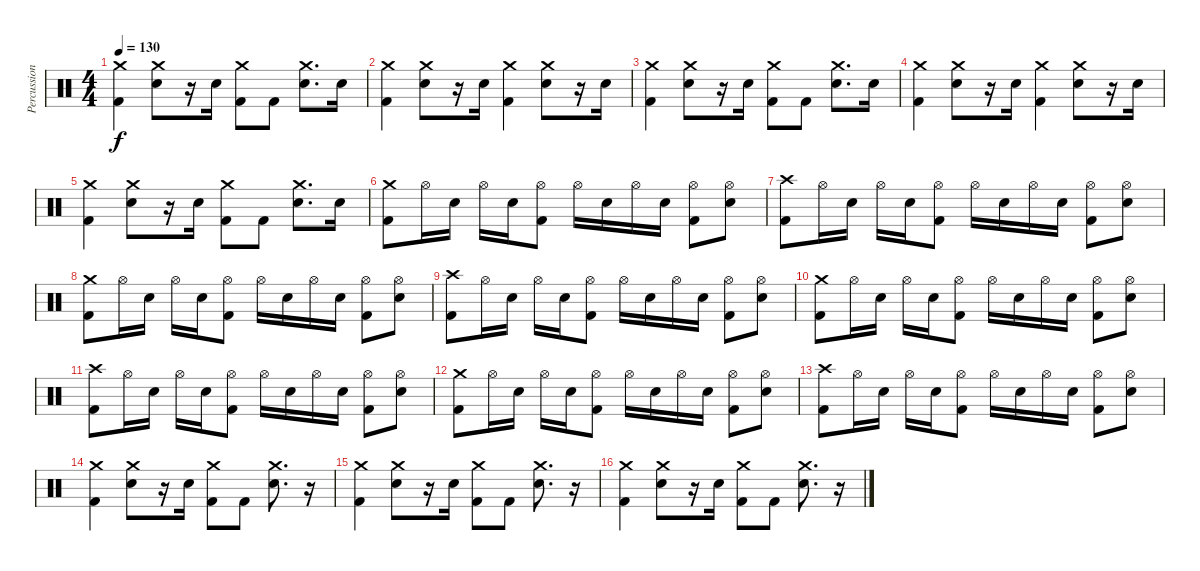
\track ("Percussions" "Percussion") {instrument percussion}
\staff {score}
\articulation defaults
\ts (4 4)
\tempo 130
\clef neutral
\ks c
("Kick (hit) 2" "Crash medium (hit)").4{dy f} ("Electric Snare (hit)" "Crash medium (hit)").8 r.16 "Electric Snare (hit)".16 ("Kick (hit) 2" "Crash medium (hit)").8 "Kick (hit) 2".8 ("Electric Snare (hit)" "Crash medium (hit)").8{d} "Electric Snare (hit)".16 |
("Kick (hit) 2" "Crash medium (hit)").4 ("Electric Snare (hit)" "Crash medium (hit)").8 r.16 "Electric Snare (hit)".16 ("Kick (hit) 2" "Crash medium (hit)").4 ("Electric Snare (hit)" "Crash medium (hit)").8 r.16 "Electric Snare (hit)".16 |
("Kick (hit) 2" "Crash medium (hit)").4 ("Electric Snare (hit)" "Crash medium (hit)").8 r.16 "Electric Snare (hit)".16 ("Kick (hit) 2" "Crash medium (hit)").8 "Kick (hit) 2".8 ("Electric Snare (hit)" "Crash medium (hit)").8{d} "Electric Snare (hit)".16 |
("Kick (hit) 2" "Crash medium (hit)").4 ("Electric Snare (hit)" "Crash medium (hit)").8 r.16 "Electric Snare (hit)".16 ("Kick (hit) 2" "Crash medium (hit)").4 ("Electric Snare (hit)" "Crash medium (hit)").8 r.16 "Electric Snare (hit)".16 |
("Kick (hit) 2" "Crash medium (hit)").4 ("Electric Snare (hit)" "Crash medium (hit)").8 r.16 "Electric Snare (hit)".16 ("Kick (hit) 2" "Crash medium (hit)").8 "Kick (hit) 2".8 ("Electric Snare (hit)" "Crash medium (hit)").8{d} "Electric Snare (hit)".16 |
("Kick (hit) 2" "Crash medium (hit)").8 "Hi-Hat (open)".16 "Electric Snare (hit)".16 "Hi-Hat (open)".16 "Electric Snare (hit)".16 ("Kick (hit) 2" "Hi-Hat (open)").8 "Hi-Hat (open)".16 "Electric Snare (hit)".16 "Hi-Hat (open)".16 "Electric Snare (hit)".16 ("Kick (hit) 2" "Hi-Hat (open)").8 ("Electric Snare (hit)" "Hi-Hat (open)").8 |
("Kick (hit) 2" "Crash high (hit)").8 "Hi-Hat (open)".16 "Electric Snare (hit)".16 "Hi-Hat (open)".16 "Electric Snare (hit)".16 ("Kick (hit) 2" "Hi-Hat (open)").8 "Hi-Hat (open)".16 "Electric Snare (hit)".16 "Hi-Hat (open)".16 "Electric Snare (hit)".16 ("Kick (hit) 2" "Hi-Hat (open)").8 ("Electric Snare (hit)" "Hi-Hat (open)").8 |
("Kick (hit) 2" "Crash medium (hit)").8 "Hi-Hat (open)".16 "Electric Snare (hit)".16 "Hi-Hat (open)".16 "Electric Snare (hit)".16 ("Kick (hit) 2" "Hi-Hat (open)").8 "Hi-Hat (open)".16 "Electric Snare (hit)".16 "Hi-Hat (open)".16 "Electric Snare (hit)".16 ("Kick (hit) 2" "Hi-Hat (open)").8 ("Electric Snare (hit)" "Hi-Hat (open)").8 |
("Kick (hit) 2" "Crash high (hit)").8 "Hi-Hat (open)".16 "Electric Snare (hit)".16 "Hi-Hat (open)".16 "Electric Snare (hit)".16 ("Kick (hit) 2" "Hi-Hat (open)").8 "Hi-Hat (open)".16 "Electric Snare (hit)".16 "Hi-Hat (open)".16 "Electric Snare (hit)".16 ("Kick (hit) 2" "Hi-Hat (open)").8 ("Electric Snare (hit)" "Hi-Hat (open)").8 |
("Kick (hit) 2" "Crash medium (hit)").8 "Hi-Hat (open)".16 "Electric Snare (hit)".16 "Hi-Hat (open)".16 "Electric Snare (hit)".16 ("Kick (hit) 2" "Hi-Hat (open)").8 "Hi-Hat (open)".16 "Electric Snare (hit)".16 "Hi-Hat (open)".16 "Electric Snare (hit)".16 ("Kick (hit) 2" "Hi-Hat (open)").8 ("Electric Snare (hit)" "Hi-Hat (open)").8 |
("Kick (hit) 2" "Crash high (hit)").8 "Hi-Hat (open)".16 "Electric Snare (hit)".16 "Hi-Hat (open)".16 "Electric Snare (hit)".16 ("Kick (hit) 2" "Hi-Hat (open)").8 "Hi-Hat (open)".16 "Electric Snare (hit)".16 "Hi-Hat (open)".16 "Electric Snare (hit)".16 ("Kick (hit) 2" "Hi-Hat (open)").8 ("Electric Snare (hit)" "Hi-Hat (open)").8 |
("Kick (hit) 2" "Crash medium (hit)").8 "Hi-Hat (open)".16 "Electric Snare (hit)".16 "Hi-Hat (open)".16 "Electric Snare (hit)".16 ("Kick (hit) 2" "Hi-Hat (open)").8 "Hi-Hat (open)".16 "Electric Snare (hit)".16 "Hi-Hat (open)".16 "Electric Snare (hit)".16 ("Kick (hit) 2" "Hi-Hat (open)").8 ("Electric Snare (hit)" "Hi-Hat (open)").8 |
("Kick (hit) 2" "Crash high (hit)").8 "Hi-Hat (open)".16 "Electric Snare (hit)".16 "Hi-Hat (open)".16 "Electric Snare (hit)".16 ("Kick (hit) 2" "Hi-Hat (open)").8 "Hi-Hat (open)".16 "Electric Snare (hit)".16 "Hi-Hat (open)".16 "Electric Snare (hit)".16 ("Kick (hit) 2" "Hi-Hat (open)").8 ("Electric Snare (hit)" "Hi-Hat (open)").8 |
("Kick (hit) 2" "Crash medium (hit)").4 ("Electric Snare (hit)" "Crash medium (hit)").8 r.16 "Electric Snare (hit)".16 ("Kick (hit) 2" "Crash medium (hit)").8 "Kick (hit) 2".8 ("Electric Snare (hit)" "Crash medium (hit)").8{d} r.16 |
("Kick (hit) 2" "Crash medium (hit)").4 ("Electric Snare (hit)" "Crash medium (hit)").8 r.16 "Electric Snare (hit)".16 ("Kick (hit) 2" "Crash medium (hit)").8 "Kick (hit) 2".8 ("Electric Snare (hit)" "Crash medium (hit)").8{d} r.16 |
("Kick (hit) 2" "Crash medium (hit)").4 ("Electric Snare (hit)" "Crash medium (hit)").8 r.16 "Electric Snare (hit)".16 ("Kick (hit) 2" "Crash medium (hit)").8 "Kick (hit) 2".8 ("Electric Snare (hit)" "Crash medium (hit)").8{d} r.16
